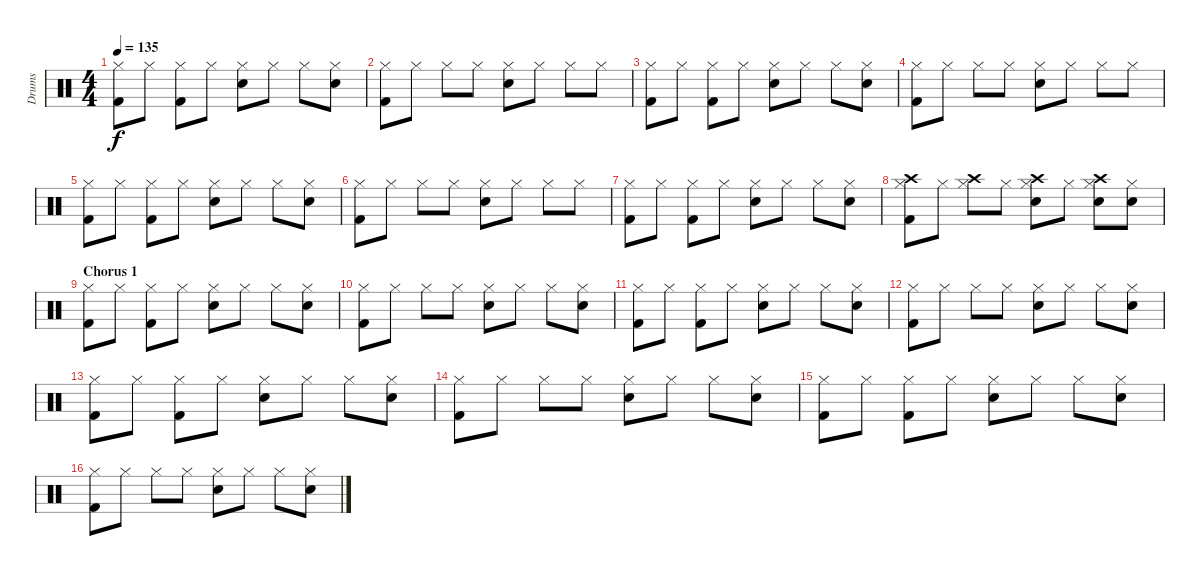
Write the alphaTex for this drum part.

\track ("Drums" "Drums") {instrument percussion}
\staff {score}
\articulation defaults
\ts (4 4)
\tempo 135
\clef neutral
\ks c
("Kick (hit) 2" "Hi-Hat (closed)").8{dy f} "Hi-Hat (closed)".8 ("Kick (hit) 2" "Hi-Hat (closed)").8 "Hi-Hat (closed)".8 ("Snare (hit) 2" "Hi-Hat (closed)").8 "Hi-Hat (closed)".8 "Hi-Hat (closed)".8 ("Snare (hit) 2" "Hi-Hat (closed)").8 |
("Kick (hit) 2" "Hi-Hat (closed)").8 "Hi-Hat (closed)".8 "Hi-Hat (closed)".8 "Hi-Hat (closed)".8 ("Snare (hit) 2" "Hi-Hat (closed)").8 "Hi-Hat (closed)".8 "Hi-Hat (closed)".8 "Hi-Hat (closed)".8 |
("Kick (hit) 2" "Hi-Hat (closed)").8 "Hi-Hat (closed)".8 ("Kick (hit) 2" "Hi-Hat (closed)").8 "Hi-Hat (closed)".8 ("Snare (hit) 2" "Hi-Hat (closed)").8 "Hi-Hat (closed)".8 "Hi-Hat (closed)".8 ("Snare (hit) 2" "Hi-Hat (closed)").8 |
("Kick (hit) 2" "Hi-Hat (closed)").8 "Hi-Hat (closed)".8 "Hi-Hat (closed)".8 "Hi-Hat (closed)".8 ("Snare (hit) 2" "Hi-Hat (closed)").8 "Hi-Hat (closed)".8 "Hi-Hat (closed)".8 "Hi-Hat (closed)".8 |
("Kick (hit) 2" "Hi-Hat (closed)").8 "Hi-Hat (closed)".8 ("Kick (hit) 2" "Hi-Hat (closed)").8 "Hi-Hat (closed)".8 ("Snare (hit) 2" "Hi-Hat (closed)").8 "Hi-Hat (closed)".8 "Hi-Hat (closed)".8 ("Snare (hit) 2" "Hi-Hat (closed)").8 |
("Kick (hit) 2" "Hi-Hat (closed)").8 "Hi-Hat (closed)".8 "Hi-Hat (closed)".8 "Hi-Hat (closed)".8 ("Snare (hit) 2" "Hi-Hat (closed)").8 "Hi-Hat (closed)".8 "Hi-Hat (closed)".8 "Hi-Hat (closed)".8 |
("Kick (hit) 2" "Hi-Hat (closed)").8 "Hi-Hat (closed)".8 ("Kick (hit) 2" "Hi-Hat (closed)").8 "Hi-Hat (closed)".8 ("Snare (hit) 2" "Hi-Hat (closed)").8 "Hi-Hat (closed)".8 "Hi-Hat (closed)".8 ("Snare (hit) 2" "Hi-Hat (closed)").8 |
("Kick (hit) 2" "Hi-Hat (closed)" "Crash high (hit)").8 "Hi-Hat (closed)".8 ("Hi-Hat (closed)" "Crash high (hit)").8 "Hi-Hat (closed)".8 ("Snare (hit) 2" "Hi-Hat (closed)" "Crash high (hit)").8 "Hi-Hat (closed)".8 ("Snare (hit) 2" "Hi-Hat (closed)" "Crash high (hit)").8 ("Snare (hit) 2" "Hi-Hat (closed)").8 |
\section ("" "Chorus 1")
("Kick (hit) 2" "Hi-Hat (closed)").8 "Hi-Hat (closed)".8 ("Kick (hit) 2" "Hi-Hat (closed)").8 "Hi-Hat (closed)".8 ("Snare (hit) 2" "Hi-Hat (closed)").8 "Hi-Hat (closed)".8 "Hi-Hat (closed)".8 ("Snare (hit) 2" "Hi-Hat (closed)").8 |
("Kick (hit) 2" "Hi-Hat (closed)").8 "Hi-Hat (closed)".8 "Hi-Hat (closed)".8 "Hi-Hat (closed)".8 ("Snare (hit) 2" "Hi-Hat (closed)").8 "Hi-Hat (closed)".8 "Hi-Hat (closed)".8 ("Snare (hit) 2" "Hi-Hat (closed)").8 |
("Kick (hit) 2" "Hi-Hat (closed)").8 "Hi-Hat (closed)".8 ("Kick (hit) 2" "Hi-Hat (closed)").8 "Hi-Hat (closed)".8 ("Snare (hit) 2" "Hi-Hat (closed)").8 "Hi-Hat (closed)".8 "Hi-Hat (closed)".8 ("Snare (hit) 2" "Hi-Hat (closed)").8 |
("Kick (hit) 2" "Hi-Hat (closed)").8 "Hi-Hat (closed)".8 "Hi-Hat (closed)".8 "Hi-Hat (closed)".8 ("Snare (hit) 2" "Hi-Hat (closed)").8 "Hi-Hat (closed)".8 "Hi-Hat (closed)".8 ("Snare (hit) 2" "Hi-Hat (closed)").8 |
("Kick (hit) 2" "Hi-Hat (closed)").8 "Hi-Hat (closed)".8 ("Kick (hit) 2" "Hi-Hat (closed)").8 "Hi-Hat (closed)".8 ("Snare (hit) 2" "Hi-Hat (closed)").8 "Hi-Hat (closed)".8 "Hi-Hat (closed)".8 ("Snare (hit) 2" "Hi-Hat (closed)").8 |
("Kick (hit) 2" "Hi-Hat (closed)").8 "Hi-Hat (closed)".8 "Hi-Hat (closed)".8 "Hi-Hat (closed)".8 ("Snare (hit) 2" "Hi-Hat (closed)").8 "Hi-Hat (closed)".8 "Hi-Hat (closed)".8 ("Snare (hit) 2" "Hi-Hat (closed)").8 |
("Kick (hit) 2" "Hi-Hat (closed)").8 "Hi-Hat (closed)".8 ("Kick (hit) 2" "Hi-Hat (closed)").8 "Hi-Hat (closed)".8 ("Snare (hit) 2" "Hi-Hat (closed)").8 "Hi-Hat (closed)".8 "Hi-Hat (closed)".8 ("Snare (hit) 2" "Hi-Hat (closed)").8 |
("Kick (hit) 2" "Hi-Hat (closed)").8 "Hi-Hat (closed)".8 "Hi-Hat (closed)".8 "Hi-Hat (closed)".8 ("Snare (hit) 2" "Hi-Hat (closed)").8 "Hi-Hat (closed)".8 "Hi-Hat (closed)".8 ("Snare (hit) 2" "Hi-Hat (closed)").8
